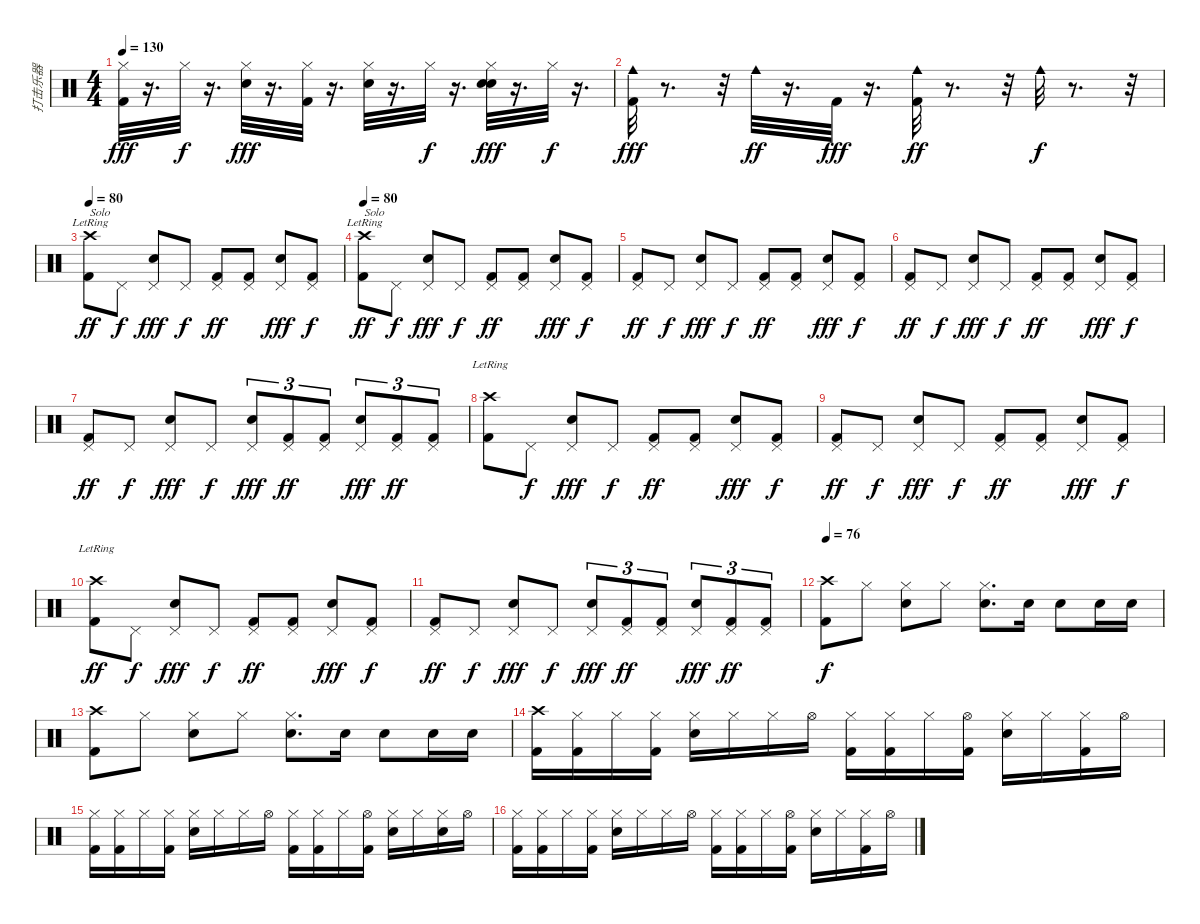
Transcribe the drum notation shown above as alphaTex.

\track ("打击乐器" "打击乐器") {instrument percussion}
\staff {score}
\articulation defaults
\ts (4 4)
\tempo 130
\clef neutral
\ks c
("Kick (hit) 2" "Hi-Hat (closed)").32{dy fff} r.16{d} "Hi-Hat (closed)".32{dy f} r.16{d} ("Hi-Hat (closed)" "Electric Snare (hit)").32{dy fff} r.16{d} ("Kick (hit) 2" "Hi-Hat (closed)").32 r.16{d} ("Electric Snare (hit)" "Hi-Hat (closed)").32 r.16{d} "Hi-Hat (closed)".32{dy f} r.16{d} ("Electric Snare (hit)" "Hi-Hat (closed)" "Electric Snare (hit)").32{dy fff} r.16{d} "Hi-Hat (closed)".32{dy f} r.16{d} |
("Cowbell medium (hit)" "Kick (hit) 2").32{dy fff} r.8{d} r.32 "Cowbell medium (hit)".32{dy ff} r.16{d} "Kick (hit) 2".32{dy fff} r.16{d} ("Kick (hit) 2" "Cowbell medium (hit)").32{dy ff} r.8{d} r.32 "Cowbell medium (hit)".32{dy f} r.8{d} r.32 |
\tempo 80
("Crash high (hit)"{lr} "Kick (hit) 2").8{txt "Solo" dy ff} "Pedal Hi-Hat (hit)".8{dy f} ("Pedal Hi-Hat (hit)" "Electric Snare (hit)").8{dy fff} "Pedal Hi-Hat (hit)".8{dy f} ("Pedal Hi-Hat (hit)" "Kick (hit) 2").8{dy ff} ("Pedal Hi-Hat (hit)" "Kick (hit) 2").8 ("Pedal Hi-Hat (hit)" "Electric Snare (hit)").8{dy fff} ("Pedal Hi-Hat (hit)" "Kick (hit) 2").8{dy f} |
\tempo 80
("Crash high (hit)"{lr} "Kick (hit) 2").8{txt "Solo" dy ff} "Pedal Hi-Hat (hit)".8{dy f} ("Pedal Hi-Hat (hit)" "Electric Snare (hit)").8{dy fff} "Pedal Hi-Hat (hit)".8{dy f} ("Pedal Hi-Hat (hit)" "Kick (hit) 2").8{dy ff} ("Pedal Hi-Hat (hit)" "Kick (hit) 2").8 ("Pedal Hi-Hat (hit)" "Electric Snare (hit)").8{dy fff} ("Pedal Hi-Hat (hit)" "Kick (hit) 2").8{dy f} |
("Pedal Hi-Hat (hit)" "Kick (hit) 2").8{dy ff} "Pedal Hi-Hat (hit)".8{dy f} ("Pedal Hi-Hat (hit)" "Electric Snare (hit)").8{dy fff} "Pedal Hi-Hat (hit)".8{dy f} ("Pedal Hi-Hat (hit)" "Kick (hit) 2").8{dy ff} ("Pedal Hi-Hat (hit)" "Kick (hit) 2").8 ("Pedal Hi-Hat (hit)" "Electric Snare (hit)").8{dy fff} ("Pedal Hi-Hat (hit)" "Kick (hit) 2").8{dy f} |
("Pedal Hi-Hat (hit)" "Kick (hit) 2").8{dy ff} "Pedal Hi-Hat (hit)".8{dy f} ("Pedal Hi-Hat (hit)" "Electric Snare (hit)").8{dy fff} "Pedal Hi-Hat (hit)".8{dy f} ("Pedal Hi-Hat (hit)" "Kick (hit) 2").8{dy ff} ("Pedal Hi-Hat (hit)" "Kick (hit) 2").8 ("Pedal Hi-Hat (hit)" "Electric Snare (hit)").8{dy fff} ("Pedal Hi-Hat (hit)" "Kick (hit) 2").8{dy f} |
("Pedal Hi-Hat (hit)" "Kick (hit) 2").8{dy ff} "Pedal Hi-Hat (hit)".8{dy f} ("Pedal Hi-Hat (hit)" "Electric Snare (hit)").8{dy fff} "Pedal Hi-Hat (hit)".8{dy f} ("Pedal Hi-Hat (hit)" "Electric Snare (hit)").8{tu (3 2) dy fff} ("Pedal Hi-Hat (hit)" "Kick (hit) 2").8{tu (3 2) dy ff} ("Pedal Hi-Hat (hit)" "Kick (hit) 2").8{tu (3 2)} ("Pedal Hi-Hat (hit)" "Electric Snare (hit)").8{tu (3 2) dy fff} ("Pedal Hi-Hat (hit)" "Kick (hit) 2").8{tu (3 2) dy ff} ("Pedal Hi-Hat (hit)" "Kick (hit) 2").8{tu (3 2)} |
("Crash high (hit)"{lr} "Kick (hit) 2").8 "Pedal Hi-Hat (hit)".8{dy f} ("Pedal Hi-Hat (hit)" "Electric Snare (hit)").8{dy fff} "Pedal Hi-Hat (hit)".8{dy f} ("Pedal Hi-Hat (hit)" "Kick (hit) 2").8{dy ff} ("Pedal Hi-Hat (hit)" "Kick (hit) 2").8 ("Pedal Hi-Hat (hit)" "Electric Snare (hit)").8{dy fff} ("Pedal Hi-Hat (hit)" "Kick (hit) 2").8{dy f} |
("Pedal Hi-Hat (hit)" "Kick (hit) 2").8{dy ff} "Pedal Hi-Hat (hit)".8{dy f} ("Pedal Hi-Hat (hit)" "Electric Snare (hit)").8{dy fff} "Pedal Hi-Hat (hit)".8{dy f} ("Pedal Hi-Hat (hit)" "Kick (hit) 2").8{dy ff} ("Pedal Hi-Hat (hit)" "Kick (hit) 2").8 ("Pedal Hi-Hat (hit)" "Electric Snare (hit)").8{dy fff} ("Pedal Hi-Hat (hit)" "Kick (hit) 2").8{dy f} |
("Crash high (hit)"{lr} "Kick (hit) 2").8{dy ff} "Pedal Hi-Hat (hit)".8{dy f} ("Pedal Hi-Hat (hit)" "Electric Snare (hit)").8{dy fff} "Pedal Hi-Hat (hit)".8{dy f} ("Pedal Hi-Hat (hit)" "Kick (hit) 2").8{dy ff} ("Pedal Hi-Hat (hit)" "Kick (hit) 2").8 ("Pedal Hi-Hat (hit)" "Electric Snare (hit)").8{dy fff} ("Pedal Hi-Hat (hit)" "Kick (hit) 2").8{dy f} |
("Pedal Hi-Hat (hit)" "Kick (hit) 2").8{dy ff} "Pedal Hi-Hat (hit)".8{dy f} ("Pedal Hi-Hat (hit)" "Electric Snare (hit)").8{dy fff} "Pedal Hi-Hat (hit)".8{dy f} ("Pedal Hi-Hat (hit)" "Electric Snare (hit)").8{tu (3 2) dy fff} ("Pedal Hi-Hat (hit)" "Kick (hit) 2").8{tu (3 2) dy ff} ("Pedal Hi-Hat (hit)" "Kick (hit) 2").8{tu (3 2)} ("Pedal Hi-Hat (hit)" "Electric Snare (hit)").8{tu (3 2) dy fff} ("Pedal Hi-Hat (hit)" "Kick (hit) 2").8{tu (3 2) dy ff} ("Pedal Hi-Hat (hit)" "Kick (hit) 2").8{tu (3 2)} |
\tempo 76
("Crash high (hit)" "Kick (hit) 2").8{dy f} "Hi-Hat (closed)".8 ("Hi-Hat (closed)" "Snare (hit) 2").8 "Hi-Hat (closed)".8 ("Hi-Hat (closed)" "Snare (hit) 2").8{d} "Snare (hit) 2".16 "Snare (hit) 2".8 "Snare (hit) 2".16 "Snare (hit) 2".16 |
("Crash high (hit)" "Kick (hit) 2").8 "Hi-Hat (closed)".8 ("Hi-Hat (closed)" "Snare (hit) 2").8 "Hi-Hat (closed)".8 ("Hi-Hat (closed)" "Snare (hit) 2").8{d} "Snare (hit) 2".16 "Snare (hit) 2".8 "Snare (hit) 2".16 "Snare (hit) 2".16 |
("Crash high (hit)" "Kick (hit) 2").16 ("Hi-Hat (closed)" "Kick (hit) 2").16 "Hi-Hat (closed)".16 ("Hi-Hat (closed)" "Kick (hit) 2").16 ("Hi-Hat (closed)" "Snare (hit) 2").16 "Hi-Hat (closed)".16 "Hi-Hat (closed)".16 "Hi-Hat (open)".16 ("Hi-Hat (closed)" "Kick (hit) 2").16 ("Hi-Hat (closed)" "Kick (hit) 2").16 "Hi-Hat (closed)".16 ("Hi-Hat (open)" "Kick (hit) 2").16 ("Hi-Hat (closed)" "Snare (hit) 2").16 "Hi-Hat (closed)".16 ("Hi-Hat (closed)" "Kick (hit) 2").16 "Hi-Hat (open)".16 |
("Hi-Hat (closed)" "Kick (hit) 2").16 ("Hi-Hat (closed)" "Kick (hit) 2").16 "Hi-Hat (closed)".16 ("Hi-Hat (closed)" "Kick (hit) 2").16 ("Hi-Hat (closed)" "Snare (hit) 2").16 "Hi-Hat (closed)".16 "Hi-Hat (closed)".16 "Hi-Hat (open)".16 ("Hi-Hat (closed)" "Kick (hit) 2").16 ("Hi-Hat (closed)" "Kick (hit) 2").16 "Hi-Hat (closed)".16 ("Hi-Hat (open)" "Kick (hit) 2").16 ("Hi-Hat (closed)" "Snare (hit) 2").16 "Hi-Hat (closed)".16 ("Hi-Hat (closed)" "Snare (hit) 2").16 "Hi-Hat (open)".16 |
("Hi-Hat (closed)" "Kick (hit) 2").16 ("Hi-Hat (closed)" "Kick (hit) 2").16 "Hi-Hat (closed)".16 ("Hi-Hat (closed)" "Kick (hit) 2").16 ("Hi-Hat (closed)" "Snare (hit) 2").16 "Hi-Hat (closed)".16 "Hi-Hat (closed)".16 "Hi-Hat (open)".16 ("Hi-Hat (closed)" "Kick (hit) 2").16 ("Hi-Hat (closed)" "Kick (hit) 2").16 "Hi-Hat (closed)".16 ("Hi-Hat (open)" "Kick (hit) 2").16 ("Hi-Hat (closed)" "Snare (hit) 2").16 "Hi-Hat (closed)".16 ("Hi-Hat (closed)" "Kick (hit) 2").16 "Hi-Hat (open)".16
